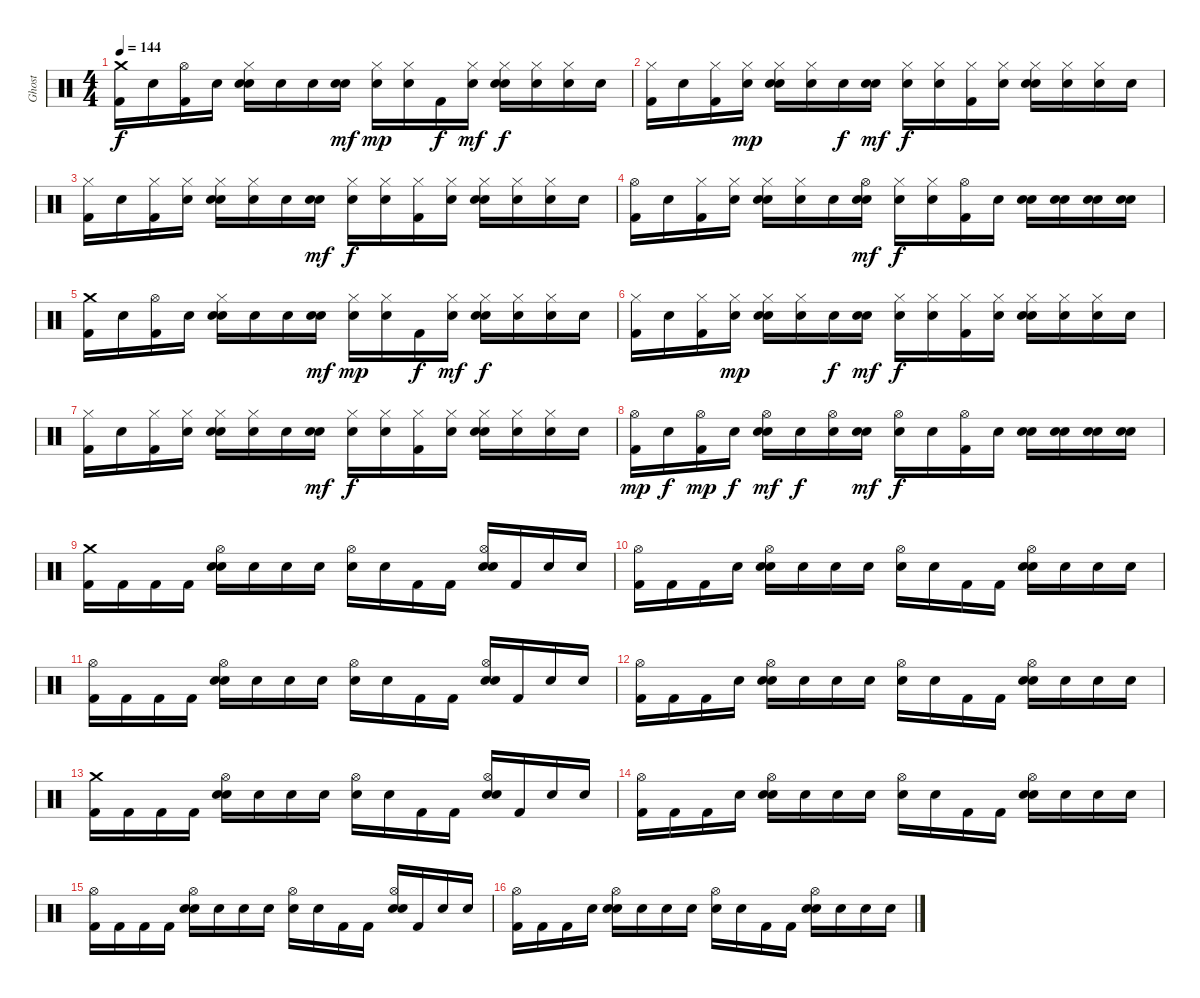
\track ("Ghost" "Ghost") {instrument percussion}
\staff {score}
\articulation defaults
\ts (4 4)
\tempo 144
\clef neutral
\ks c
("Crash medium (hit)" "Kick (hit) 2").16{dy f} "Snare (hit)".16 ("Hi-Hat (open)" "Kick (hit) 2").16 "Snare (hit)".16 ("Hi-Hat (closed)" "Electric Snare (hit)" "Snare (hit)").16 "Snare (hit)".16 "Snare (hit)".16 ("Electric Snare (hit)" "Snare (hit)").16{dy mf} ("Hi-Hat (closed)" "Snare (hit)").16{dy mp} ("Hi-Hat (closed)" "Snare (hit)").16 "Kick (hit) 2".16{dy f} ("Hi-Hat (closed)" "Snare (hit)").16{dy mf} ("Hi-Hat (closed)" "Electric Snare (hit)" "Snare (hit)").16{dy f} ("Hi-Hat (closed)" "Snare (hit)").16 ("Hi-Hat (closed)" "Snare (hit)").16 "Snare (hit)".16 |
("Hi-Hat (closed)" "Kick (hit) 2").16 "Snare (hit)".16 ("Hi-Hat (closed)" "Kick (hit) 2").16 ("Hi-Hat (closed)" "Snare (hit)").16{dy mp} ("Hi-Hat (closed)" "Electric Snare (hit)" "Snare (hit)").16 ("Hi-Hat (closed)" "Snare (hit)").16 "Snare (hit)".16{dy f} ("Electric Snare (hit)" "Snare (hit)").16{dy mf} ("Hi-Hat (closed)" "Snare (hit)").16{dy f} ("Hi-Hat (closed)" "Snare (hit)").16 ("Hi-Hat (closed)" "Kick (hit) 2").16 ("Hi-Hat (closed)" "Snare (hit)").16 ("Hi-Hat (closed)" "Electric Snare (hit)" "Snare (hit)").16 ("Hi-Hat (closed)" "Snare (hit)").16 ("Hi-Hat (closed)" "Snare (hit)").16 "Snare (hit)".16 |
("Hi-Hat (closed)" "Kick (hit) 2").16 "Snare (hit)".16 ("Hi-Hat (closed)" "Kick (hit) 2").16 ("Hi-Hat (closed)" "Snare (hit)").16 ("Hi-Hat (closed)" "Electric Snare (hit)" "Snare (hit)").16 ("Hi-Hat (closed)" "Snare (hit)").16 "Snare (hit)".16 ("Electric Snare (hit)" "Snare (hit)").16{dy mf} ("Hi-Hat (closed)" "Snare (hit)").16{dy f} ("Hi-Hat (closed)" "Snare (hit)").16 ("Hi-Hat (closed)" "Kick (hit) 2").16 ("Hi-Hat (closed)" "Snare (hit)").16 ("Hi-Hat (closed)" "Electric Snare (hit)" "Snare (hit)").16 ("Hi-Hat (closed)" "Snare (hit)").16 ("Hi-Hat (closed)" "Snare (hit)").16 "Snare (hit)".16 |
("Hi-Hat (open)" "Kick (hit) 2").16 "Snare (hit)".16 ("Hi-Hat (closed)" "Kick (hit) 2").16 ("Hi-Hat (closed)" "Snare (hit)").16 ("Hi-Hat (closed)" "Electric Snare (hit)" "Snare (hit)").16 ("Hi-Hat (closed)" "Snare (hit)").16 "Snare (hit)".16 ("Hi-Hat (open)" "Electric Snare (hit)" "Snare (hit)").16{dy mf} ("Hi-Hat (closed)" "Snare (hit)").16{dy f} ("Hi-Hat (closed)" "Snare (hit)").16 ("Hi-Hat (open)" "Kick (hit) 2").16 "Snare (hit)".16 ("Electric Snare (hit)" "Snare (hit)").16 ("Electric Snare (hit)" "Snare (hit)").16 ("Electric Snare (hit)" "Snare (hit)").16 ("Electric Snare (hit)" "Snare (hit)").16 |
("Crash medium (hit)" "Kick (hit) 2").16 "Snare (hit)".16 ("Hi-Hat (open)" "Kick (hit) 2").16 "Snare (hit)".16 ("Hi-Hat (closed)" "Electric Snare (hit)" "Snare (hit)").16 "Snare (hit)".16 "Snare (hit)".16 ("Electric Snare (hit)" "Snare (hit)").16{dy mf} ("Hi-Hat (closed)" "Snare (hit)").16{dy mp} ("Hi-Hat (closed)" "Snare (hit)").16 "Kick (hit) 2".16{dy f} ("Hi-Hat (closed)" "Snare (hit)").16{dy mf} ("Hi-Hat (closed)" "Electric Snare (hit)" "Snare (hit)").16{dy f} ("Hi-Hat (closed)" "Snare (hit)").16 ("Hi-Hat (closed)" "Snare (hit)").16 "Snare (hit)".16 |
("Hi-Hat (closed)" "Kick (hit) 2").16 "Snare (hit)".16 ("Hi-Hat (closed)" "Kick (hit) 2").16 ("Hi-Hat (closed)" "Snare (hit)").16{dy mp} ("Hi-Hat (closed)" "Electric Snare (hit)" "Snare (hit)").16 ("Hi-Hat (closed)" "Snare (hit)").16 "Snare (hit)".16{dy f} ("Electric Snare (hit)" "Snare (hit)").16{dy mf} ("Hi-Hat (closed)" "Snare (hit)").16{dy f} ("Hi-Hat (closed)" "Snare (hit)").16 ("Hi-Hat (closed)" "Kick (hit) 2").16 ("Hi-Hat (closed)" "Snare (hit)").16 ("Hi-Hat (closed)" "Electric Snare (hit)" "Snare (hit)").16 ("Hi-Hat (closed)" "Snare (hit)").16 ("Hi-Hat (closed)" "Snare (hit)").16 "Snare (hit)".16 |
("Hi-Hat (closed)" "Kick (hit) 2").16 "Snare (hit)".16 ("Hi-Hat (closed)" "Kick (hit) 2").16 ("Hi-Hat (closed)" "Snare (hit)").16 ("Hi-Hat (closed)" "Electric Snare (hit)" "Snare (hit)").16 ("Hi-Hat (closed)" "Snare (hit)").16 "Snare (hit)".16 ("Electric Snare (hit)" "Snare (hit)").16{dy mf} ("Hi-Hat (closed)" "Snare (hit)").16{dy f} ("Hi-Hat (closed)" "Snare (hit)").16 ("Hi-Hat (closed)" "Kick (hit) 2").16 ("Hi-Hat (closed)" "Snare (hit)").16 ("Hi-Hat (closed)" "Electric Snare (hit)" "Snare (hit)").16 ("Hi-Hat (closed)" "Snare (hit)").16 ("Hi-Hat (closed)" "Snare (hit)").16 "Snare (hit)".16 |
("Hi-Hat (open)" "Kick (hit) 2").16{dy mp} "Snare (hit)".16{dy f} ("Hi-Hat (open)" "Kick (hit) 2").16{dy mp} "Snare (hit)".16{dy f} ("Hi-Hat (open)" "Electric Snare (hit)" "Snare (hit)").16{dy mf} "Snare (hit)".16{dy f} ("Hi-Hat (open)" "Snare (hit)").16 ("Electric Snare (hit)" "Snare (hit)").16{dy mf} ("Hi-Hat (open)" "Snare (hit)").16{dy f} "Snare (hit)".16 ("Hi-Hat (open)" "Kick (hit) 2").16 "Snare (hit)".16 ("Electric Snare (hit)" "Snare (hit)").16 ("Electric Snare (hit)" "Snare (hit)").16 ("Electric Snare (hit)" "Snare (hit)").16 ("Electric Snare (hit)" "Snare (hit)").16 |
("Crash medium (hit)" "Kick (hit) 2").16 "Kick (hit) 2".16 "Kick (hit) 2".16 "Kick (hit) 2".16 ("Hi-Hat (open)" "Electric Snare (hit)" "Snare (hit)").16 "Snare (hit)".16 "Snare (hit)".16 "Electric Snare (hit)".16 ("Hi-Hat (open)" "Snare (hit)").16 "Snare (hit)".16 "Kick (hit) 2".16 "Kick (hit) 2".16 ("Hi-Hat (open)" "Electric Snare (hit)" "Snare (hit)").16 "Kick (hit) 2".16 "Snare (hit)".16 "Snare (hit)".16 |
("Hi-Hat (open)" "Kick (hit) 2").16 "Kick (hit) 2".16 "Kick (hit) 2".16 "Snare (hit)".16 ("Hi-Hat (open)" "Electric Snare (hit)" "Snare (hit)").16 "Snare (hit)".16 "Snare (hit)".16 "Electric Snare (hit)".16 ("Hi-Hat (open)" "Snare (hit)").16 "Snare (hit)".16 "Kick (hit) 2".16 "Kick (hit) 2".16 ("Hi-Hat (open)" "Electric Snare (hit)" "Snare (hit)").16 "Snare (hit)".16 "Snare (hit)".16 "Snare (hit)".16 |
("Hi-Hat (open)" "Kick (hit) 2").16 "Kick (hit) 2".16 "Kick (hit) 2".16 "Kick (hit) 2".16 ("Hi-Hat (open)" "Electric Snare (hit)" "Snare (hit)").16 "Snare (hit)".16 "Snare (hit)".16 "Electric Snare (hit)".16 ("Hi-Hat (open)" "Snare (hit)").16 "Snare (hit)".16 "Kick (hit) 2".16 "Kick (hit) 2".16 ("Hi-Hat (open)" "Electric Snare (hit)" "Snare (hit)").16 "Kick (hit) 2".16 "Snare (hit)".16 "Snare (hit)".16 |
("Hi-Hat (open)" "Kick (hit) 2").16 "Kick (hit) 2".16 "Kick (hit) 2".16 "Snare (hit)".16 ("Hi-Hat (open)" "Electric Snare (hit)" "Snare (hit)").16 "Snare (hit)".16 "Snare (hit)".16 "Electric Snare (hit)".16 ("Hi-Hat (open)" "Snare (hit)").16 "Snare (hit)".16 "Kick (hit) 2".16 "Kick (hit) 2".16 ("Hi-Hat (open)" "Electric Snare (hit)" "Snare (hit)").16 "Snare (hit)".16 "Snare (hit)".16 "Snare (hit)".16 |
("Crash medium (hit)" "Kick (hit) 2").16 "Kick (hit) 2".16 "Kick (hit) 2".16 "Kick (hit) 2".16 ("Hi-Hat (open)" "Electric Snare (hit)" "Snare (hit)").16 "Snare (hit)".16 "Snare (hit)".16 "Electric Snare (hit)".16 ("Hi-Hat (open)" "Snare (hit)").16 "Snare (hit)".16 "Kick (hit) 2".16 "Kick (hit) 2".16 ("Hi-Hat (open)" "Electric Snare (hit)" "Snare (hit)").16 "Kick (hit) 2".16 "Snare (hit)".16 "Snare (hit)".16 |
("Hi-Hat (open)" "Kick (hit) 2").16 "Kick (hit) 2".16 "Kick (hit) 2".16 "Snare (hit)".16 ("Hi-Hat (open)" "Electric Snare (hit)" "Snare (hit)").16 "Snare (hit)".16 "Snare (hit)".16 "Electric Snare (hit)".16 ("Hi-Hat (open)" "Snare (hit)").16 "Snare (hit)".16 "Kick (hit) 2".16 "Kick (hit) 2".16 ("Hi-Hat (open)" "Electric Snare (hit)" "Snare (hit)").16 "Snare (hit)".16 "Snare (hit)".16 "Snare (hit)".16 |
("Hi-Hat (open)" "Kick (hit) 2").16 "Kick (hit) 2".16 "Kick (hit) 2".16 "Kick (hit) 2".16 ("Hi-Hat (open)" "Electric Snare (hit)" "Snare (hit)").16 "Snare (hit)".16 "Snare (hit)".16 "Electric Snare (hit)".16 ("Hi-Hat (open)" "Snare (hit)").16 "Snare (hit)".16 "Kick (hit) 2".16 "Kick (hit) 2".16 ("Hi-Hat (open)" "Electric Snare (hit)" "Snare (hit)").16 "Kick (hit) 2".16 "Snare (hit)".16 "Snare (hit)".16 |
("Hi-Hat (open)" "Kick (hit) 2").16 "Kick (hit) 2".16 "Kick (hit) 2".16 "Snare (hit)".16 ("Hi-Hat (open)" "Electric Snare (hit)" "Snare (hit)").16 "Snare (hit)".16 "Snare (hit)".16 "Electric Snare (hit)".16 ("Hi-Hat (open)" "Snare (hit)").16 "Snare (hit)".16 "Kick (hit) 2".16 "Kick (hit) 2".16 ("Hi-Hat (open)" "Electric Snare (hit)" "Snare (hit)").16 "Snare (hit)".16 "Snare (hit)".16 "Snare (hit)".16
